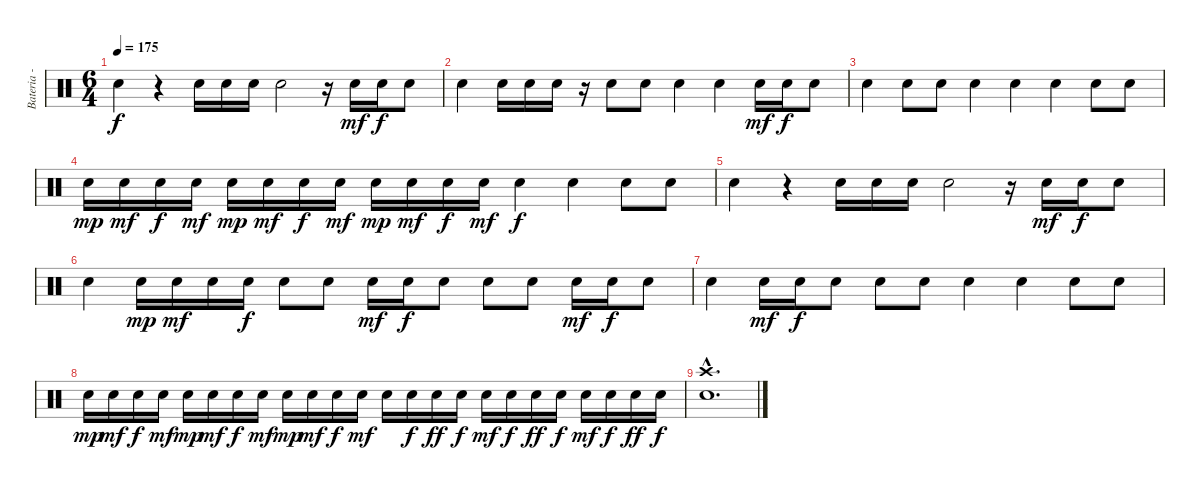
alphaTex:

\track ("Bateria - Drums" "Bateria - ") {instrument percussion}
\staff {score}
\articulation defaults
\ts (6 4)
\tempo 175
\clef neutral
\ks c "Snare (hit) 2".4{dy f}
r.4 "Snare (hit) 2".16 "Snare (hit) 2".16 "Snare (hit) 2".16 "Snare (hit) 2".2 r.16 "Snare (hit) 2".16{dy mf} "Snare (hit) 2".16{dy f} "Snare (hit) 2".8 |
"Snare (hit) 2".4{volume 6} "Snare (hit) 2".16 "Snare (hit) 2".16 "Snare (hit) 2".16 r.16 "Snare (hit) 2".8 "Snare (hit) 2".8 "Snare (hit) 2".4 "Snare (hit) 2".4 "Snare (hit) 2".16{dy mf} "Snare (hit) 2".16{dy f} "Snare (hit) 2".8 |
"Snare (hit) 2".4 "Snare (hit) 2".8 "Snare (hit) 2".8 "Snare (hit) 2".4 "Snare (hit) 2".4 "Snare (hit) 2".4 "Snare (hit) 2".8 "Snare (hit) 2".8 |
"Snare (hit) 2".16{dy mp} "Snare (hit) 2".16{dy mf} "Snare (hit) 2".16{dy f} "Snare (hit) 2".16{dy mf} "Snare (hit) 2".16{dy mp} "Snare (hit) 2".16{dy mf} "Snare (hit) 2".16{dy f} "Snare (hit) 2".16{dy mf} "Snare (hit) 2".16{dy mp} "Snare (hit) 2".16{dy mf} "Snare (hit) 2".16{dy f} "Snare (hit) 2".16{dy mf} "Snare (hit) 2".4{dy f} "Snare (hit) 2".4 "Snare (hit) 2".8 "Snare (hit) 2".8 |
"Snare (hit) 2".4 r.4 "Snare (hit) 2".16 "Snare (hit) 2".16 "Snare (hit) 2".16 "Snare (hit) 2".2 r.16 "Snare (hit) 2".16{dy mf} "Snare (hit) 2".16{dy f} "Snare (hit) 2".8 |
"Snare (hit) 2".4{volume 6} "Snare (hit) 2".16{dy mp} "Snare (hit) 2".16{dy mf} "Snare (hit) 2".16 "Snare (hit) 2".16{dy f} "Snare (hit) 2".8 "Snare (hit) 2".8 "Snare (hit) 2".16{dy mf} "Snare (hit) 2".16{dy f} "Snare (hit) 2".8 "Snare (hit) 2".8 "Snare (hit) 2".8 "Snare (hit) 2".16{dy mf} "Snare (hit) 2".16{dy f} "Snare (hit) 2".8 |
"Snare (hit) 2".4 "Snare (hit) 2".16{dy mf} "Snare (hit) 2".16{dy f} "Snare (hit) 2".8 "Snare (hit) 2".8 "Snare (hit) 2".8 "Snare (hit) 2".4 "Snare (hit) 2".4 "Snare (hit) 2".8 "Snare (hit) 2".8 |
"Snare (hit) 2".16{dy mp} "Snare (hit) 2".16{dy mf} "Snare (hit) 2".16{dy f} "Snare (hit) 2".16{dy mf} "Snare (hit) 2".16{dy mp} "Snare (hit) 2".16{dy mf} "Snare (hit) 2".16{dy f} "Snare (hit) 2".16{dy mf} "Snare (hit) 2".16{dy mp} "Snare (hit) 2".16{dy mf} "Snare (hit) 2".16{dy f} "Snare (hit) 2".16{dy mf} "Snare (hit) 2".16 "Snare (hit) 2".16{dy f} "Snare (hit) 2".16{dy ff} "Snare (hit) 2".16{dy f} "Snare (hit) 2".16{dy mf} "Snare (hit) 2".16{dy f} "Snare (hit) 2".16{dy ff} "Snare (hit) 2".16{dy f} "Snare (hit) 2".16{dy mf} "Snare (hit) 2".16{dy f} "Snare (hit) 2".16{dy ff} "Snare (hit) 2".16{dy f} |
\section ("" "")
("Crash high (hit)"{hac} "Snare (hit) 2"{hac}).1{d}
